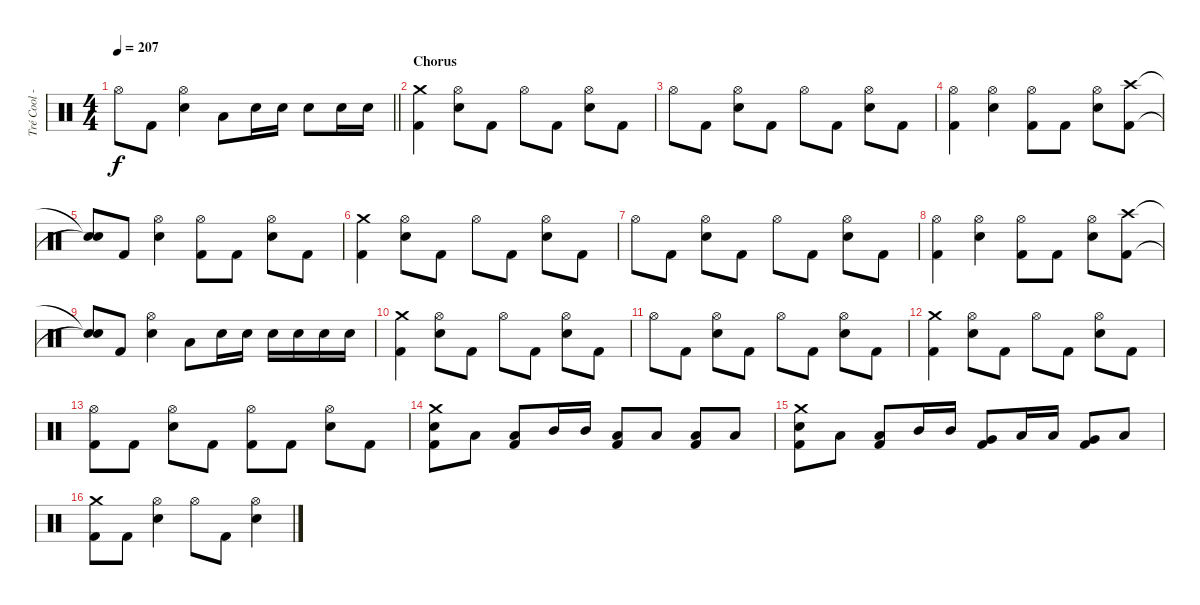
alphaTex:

\track ("Tré Cool - Drums" "Tré Cool -") {instrument percussion}
\staff {score}
\articulation defaults
\ts (4 4)
\tempo 207
\clef neutral
\barLineRight lightlight
\ks c "Hi-Hat (open)".8{dy f} "Kick (hit) 2".8
("Hi-Hat (open)" "Electric Snare (hit)").4 "Low Tom (hit)".8 "Electric Snare (hit)".16 "Electric Snare (hit)".16 "Electric Snare (hit)".8 "Electric Snare (hit)".16 "Electric Snare (hit)".16 |
\section ("" "Chorus")
("Crash medium (hit)" "Kick (hit) 2").4 ("Hi-Hat (open)" "Electric Snare (hit)").8 "Kick (hit) 2".8 "Hi-Hat (open)".8 "Kick (hit) 2".8 ("Hi-Hat (open)" "Electric Snare (hit)").8 "Kick (hit) 2".8 |
"Hi-Hat (open)".8 "Kick (hit) 2".8 ("Hi-Hat (open)" "Electric Snare (hit)").8 "Kick (hit) 2".8 "Hi-Hat (open)".8 "Kick (hit) 2".8 ("Hi-Hat (open)" "Electric Snare (hit)").8 "Kick (hit) 2".8 |
("Hi-Hat (open)" "Kick (hit) 2").4 ("Hi-Hat (open)" "Electric Snare (hit)").4 ("Hi-Hat (open)" "Kick (hit) 2").8 "Kick (hit) 2".8 ("Hi-Hat (open)" "Electric Snare (hit)").8 ("Crash high (hit)" "Kick (hit) 2").8 |
("Snare (hit)"{t} "Snare (hit)"{t}).8 "Kick (hit) 2".8 ("Hi-Hat (open)" "Electric Snare (hit)").4 ("Hi-Hat (open)" "Kick (hit) 2").8 "Kick (hit) 2".8 ("Hi-Hat (open)" "Electric Snare (hit)").8 "Kick (hit) 2".8 |
("Crash medium (hit)" "Kick (hit) 2").4 ("Hi-Hat (open)" "Electric Snare (hit)").8 "Kick (hit) 2".8 "Hi-Hat (open)".8 "Kick (hit) 2".8 ("Hi-Hat (open)" "Electric Snare (hit)").8 "Kick (hit) 2".8 |
"Hi-Hat (open)".8 "Kick (hit) 2".8 ("Hi-Hat (open)" "Electric Snare (hit)").8 "Kick (hit) 2".8 "Hi-Hat (open)".8 "Kick (hit) 2".8 ("Hi-Hat (open)" "Electric Snare (hit)").8 "Kick (hit) 2".8 |
("Hi-Hat (open)" "Kick (hit) 2").4 ("Hi-Hat (open)" "Electric Snare (hit)").4 ("Hi-Hat (open)" "Kick (hit) 2").8 "Kick (hit) 2".8 ("Hi-Hat (open)" "Electric Snare (hit)").8 ("Crash high (hit)" "Kick (hit) 2").8 |
("Snare (hit)"{t} "Snare (hit)"{t}).8 "Kick (hit) 2".8 ("Hi-Hat (open)" "Electric Snare (hit)").4 "Low Tom (hit)".8 "Electric Snare (hit)".16 "Electric Snare (hit)".16 "Electric Snare (hit)".16 "Electric Snare (hit)".16 "Electric Snare (hit)".16 "Electric Snare (hit)".16 |
("Crash medium (hit)" "Kick (hit) 2").4 ("Hi-Hat (open)" "Electric Snare (hit)").8 "Kick (hit) 2".8 "Hi-Hat (open)".8 "Kick (hit) 2".8 ("Hi-Hat (open)" "Electric Snare (hit)").8 "Kick (hit) 2".8 |
"Hi-Hat (open)".8 "Kick (hit) 2".8 ("Hi-Hat (open)" "Electric Snare (hit)").8 "Kick (hit) 2".8 "Hi-Hat (open)".8 "Kick (hit) 2".8 ("Hi-Hat (open)" "Electric Snare (hit)").8 "Kick (hit) 2".8 |
("Crash medium (hit)" "Kick (hit) 2").4 ("Hi-Hat (open)" "Electric Snare (hit)").8 "Kick (hit) 2".8 "Hi-Hat (open)".8 "Kick (hit) 2".8 ("Hi-Hat (open)" "Electric Snare (hit)").8 "Kick (hit) 2".8 |
("Hi-Hat (open)" "Kick (hit) 2").8 "Kick (hit) 2".8 ("Hi-Hat (open)" "Electric Snare (hit)").8 "Kick (hit) 2".8 ("Hi-Hat (open)" "Kick (hit) 2").8 "Kick (hit) 2".8 ("Hi-Hat (open)" "Electric Snare (hit)").8 "Kick (hit) 2".8 |
("Crash medium (hit)" "Electric Snare (hit)" "Kick (hit) 2").8 "Low Floor Tom (hit)".8 ("Low Floor Tom (hit)" "Kick (hit) 2").8 "Mid Tom (hit)".16 "Mid Tom (hit)".16 ("Low Tom (hit)" "Kick (hit) 2").8 "Low Floor Tom (hit)".8 ("Low Floor Tom (hit)" "Kick (hit) 2").8 "Low Floor Tom (hit)".8 |
("Crash medium (hit)" "Electric Snare (hit)" "Kick (hit) 2").8 "Low Floor Tom (hit)".8 ("Low Floor Tom (hit)" "Kick (hit) 2").8 "Mid Tom (hit)".16 "Mid Tom (hit)".16 ("Very Low Tom (hit)" "Kick (hit) 2").8 "Low Tom (hit)".16 "Low Tom (hit)".16 ("Very Low Tom (hit)" "Kick (hit) 2").8 "Low Floor Tom (hit)".8 |
("Crash medium (hit)" "Kick (hit) 2").8 "Kick (hit) 2".8 ("Hi-Hat (open)" "Electric Snare (hit)").4 "Hi-Hat (open)".8 "Kick (hit) 2".8 ("Hi-Hat (open)" "Electric Snare (hit)").4
